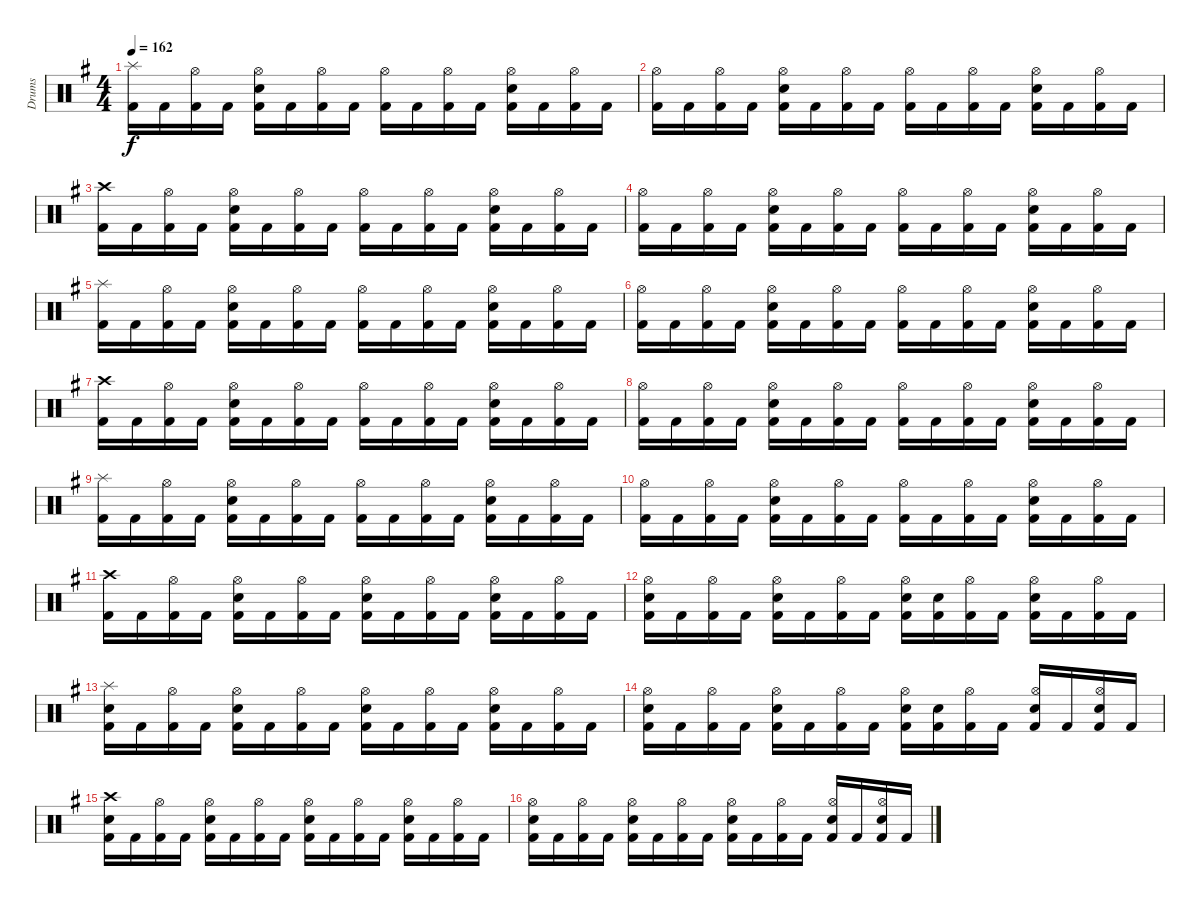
\track ("Drums" "Drums") {instrument percussion}
\staff {score}
\articulation defaults
\ts (4 4)
\tempo 162
\clef neutral
\ks g
("Splash (hit)" "Kick (hit) 2").16{dy f} "Kick (hit) 2".16 ("Hi-Hat (open)" "Kick (hit) 2").16 "Kick (hit) 2".16 ("Hi-Hat (open)" "Electric Snare (hit)" "Kick (hit) 2").16 "Kick (hit) 2".16 ("Hi-Hat (open)" "Kick (hit) 2").16 "Kick (hit) 2".16 ("Hi-Hat (open)" "Kick (hit) 2").16 "Kick (hit) 2".16 ("Hi-Hat (open)" "Kick (hit) 2").16 "Kick (hit) 2".16 ("Hi-Hat (open)" "Electric Snare (hit)" "Kick (hit) 2").16 "Kick (hit) 2".16 ("Hi-Hat (open)" "Kick (hit) 2").16 "Kick (hit) 2".16 |
("Hi-Hat (open)" "Kick (hit) 2").16 "Kick (hit) 2".16 ("Hi-Hat (open)" "Kick (hit) 2").16 "Kick (hit) 2".16 ("Hi-Hat (open)" "Electric Snare (hit)" "Kick (hit) 2").16 "Kick (hit) 2".16 ("Hi-Hat (open)" "Kick (hit) 2").16 "Kick (hit) 2".16 ("Hi-Hat (open)" "Kick (hit) 2").16 "Kick (hit) 2".16 ("Hi-Hat (open)" "Kick (hit) 2").16 "Kick (hit) 2".16 ("Hi-Hat (open)" "Electric Snare (hit)" "Kick (hit) 2").16 "Kick (hit) 2".16 ("Hi-Hat (open)" "Kick (hit) 2").16 "Kick (hit) 2".16 |
("Crash high (hit)" "Kick (hit) 2").16 "Kick (hit) 2".16 ("Hi-Hat (open)" "Kick (hit) 2").16 "Kick (hit) 2".16 ("Hi-Hat (open)" "Electric Snare (hit)" "Kick (hit) 2").16 "Kick (hit) 2".16 ("Hi-Hat (open)" "Kick (hit) 2").16 "Kick (hit) 2".16 ("Hi-Hat (open)" "Kick (hit) 2").16 "Kick (hit) 2".16 ("Hi-Hat (open)" "Kick (hit) 2").16 "Kick (hit) 2".16 ("Hi-Hat (open)" "Electric Snare (hit)" "Kick (hit) 2").16 "Kick (hit) 2".16 ("Hi-Hat (open)" "Kick (hit) 2").16 "Kick (hit) 2".16 |
("Hi-Hat (open)" "Kick (hit) 2").16 "Kick (hit) 2".16 ("Hi-Hat (open)" "Kick (hit) 2").16 "Kick (hit) 2".16 ("Hi-Hat (open)" "Electric Snare (hit)" "Kick (hit) 2").16 "Kick (hit) 2".16 ("Hi-Hat (open)" "Kick (hit) 2").16 "Kick (hit) 2".16 ("Hi-Hat (open)" "Kick (hit) 2").16 "Kick (hit) 2".16 ("Hi-Hat (open)" "Kick (hit) 2").16 "Kick (hit) 2".16 ("Hi-Hat (open)" "Electric Snare (hit)" "Kick (hit) 2").16 "Kick (hit) 2".16 ("Hi-Hat (open)" "Kick (hit) 2").16 "Kick (hit) 2".16 |
("Splash (hit)" "Kick (hit) 2").16 "Kick (hit) 2".16 ("Hi-Hat (open)" "Kick (hit) 2").16 "Kick (hit) 2".16 ("Hi-Hat (open)" "Electric Snare (hit)" "Kick (hit) 2").16 "Kick (hit) 2".16 ("Hi-Hat (open)" "Kick (hit) 2").16 "Kick (hit) 2".16 ("Hi-Hat (open)" "Kick (hit) 2").16 "Kick (hit) 2".16 ("Hi-Hat (open)" "Kick (hit) 2").16 "Kick (hit) 2".16 ("Hi-Hat (open)" "Electric Snare (hit)" "Kick (hit) 2").16 "Kick (hit) 2".16 ("Hi-Hat (open)" "Kick (hit) 2").16 "Kick (hit) 2".16 |
("Hi-Hat (open)" "Kick (hit) 2").16 "Kick (hit) 2".16 ("Hi-Hat (open)" "Kick (hit) 2").16 "Kick (hit) 2".16 ("Hi-Hat (open)" "Electric Snare (hit)" "Kick (hit) 2").16 "Kick (hit) 2".16 ("Hi-Hat (open)" "Kick (hit) 2").16 "Kick (hit) 2".16 ("Hi-Hat (open)" "Kick (hit) 2").16 "Kick (hit) 2".16 ("Hi-Hat (open)" "Kick (hit) 2").16 "Kick (hit) 2".16 ("Hi-Hat (open)" "Electric Snare (hit)" "Kick (hit) 2").16 "Kick (hit) 2".16 ("Hi-Hat (open)" "Kick (hit) 2").16 "Kick (hit) 2".16 |
("Crash high (hit)" "Kick (hit) 2").16 "Kick (hit) 2".16 ("Hi-Hat (open)" "Kick (hit) 2").16 "Kick (hit) 2".16 ("Hi-Hat (open)" "Electric Snare (hit)" "Kick (hit) 2").16 "Kick (hit) 2".16 ("Hi-Hat (open)" "Kick (hit) 2").16 "Kick (hit) 2".16 ("Hi-Hat (open)" "Kick (hit) 2").16 "Kick (hit) 2".16 ("Hi-Hat (open)" "Kick (hit) 2").16 "Kick (hit) 2".16 ("Hi-Hat (open)" "Electric Snare (hit)" "Kick (hit) 2").16 "Kick (hit) 2".16 ("Hi-Hat (open)" "Kick (hit) 2").16 "Kick (hit) 2".16 |
("Hi-Hat (open)" "Kick (hit) 2").16 "Kick (hit) 2".16 ("Hi-Hat (open)" "Kick (hit) 2").16 "Kick (hit) 2".16 ("Hi-Hat (open)" "Electric Snare (hit)" "Kick (hit) 2").16 "Kick (hit) 2".16 ("Hi-Hat (open)" "Kick (hit) 2").16 "Kick (hit) 2".16 ("Hi-Hat (open)" "Kick (hit) 2").16 "Kick (hit) 2".16 ("Hi-Hat (open)" "Kick (hit) 2").16 "Kick (hit) 2".16 ("Hi-Hat (open)" "Electric Snare (hit)" "Kick (hit) 2").16 "Kick (hit) 2".16 ("Hi-Hat (open)" "Kick (hit) 2").16 "Kick (hit) 2".16 |
("Splash (hit)" "Kick (hit) 2").16 "Kick (hit) 2".16 ("Hi-Hat (open)" "Kick (hit) 2").16 "Kick (hit) 2".16 ("Hi-Hat (open)" "Electric Snare (hit)" "Kick (hit) 2").16 "Kick (hit) 2".16 ("Hi-Hat (open)" "Kick (hit) 2").16 "Kick (hit) 2".16 ("Hi-Hat (open)" "Kick (hit) 2").16 "Kick (hit) 2".16 ("Hi-Hat (open)" "Kick (hit) 2").16 "Kick (hit) 2".16 ("Hi-Hat (open)" "Electric Snare (hit)" "Kick (hit) 2").16 "Kick (hit) 2".16 ("Hi-Hat (open)" "Kick (hit) 2").16 "Kick (hit) 2".16 |
("Hi-Hat (open)" "Kick (hit) 2").16 "Kick (hit) 2".16 ("Hi-Hat (open)" "Kick (hit) 2").16 "Kick (hit) 2".16 ("Hi-Hat (open)" "Electric Snare (hit)" "Kick (hit) 2").16 "Kick (hit) 2".16 ("Hi-Hat (open)" "Kick (hit) 2").16 "Kick (hit) 2".16 ("Hi-Hat (open)" "Kick (hit) 2").16 "Kick (hit) 2".16 ("Hi-Hat (open)" "Kick (hit) 2").16 "Kick (hit) 2".16 ("Hi-Hat (open)" "Electric Snare (hit)" "Kick (hit) 2").16 "Kick (hit) 2".16 ("Hi-Hat (open)" "Kick (hit) 2").16 "Kick (hit) 2".16 |
("Crash high (hit)" "Kick (hit) 2").16 "Kick (hit) 2".16 ("Hi-Hat (open)" "Kick (hit) 2").16 "Kick (hit) 2".16 ("Hi-Hat (open)" "Electric Snare (hit)" "Kick (hit) 2").16 "Kick (hit) 2".16 ("Hi-Hat (open)" "Kick (hit) 2").16 "Kick (hit) 2".16 ("Hi-Hat (open)" "Electric Snare (hit)" "Kick (hit) 2").16 "Kick (hit) 2".16 ("Hi-Hat (open)" "Kick (hit) 2").16 "Kick (hit) 2".16 ("Hi-Hat (open)" "Electric Snare (hit)" "Kick (hit) 2").16 "Kick (hit) 2".16 ("Hi-Hat (open)" "Kick (hit) 2").16 "Kick (hit) 2".16 |
("Hi-Hat (open)" "Electric Snare (hit)" "Kick (hit) 2").16 "Kick (hit) 2".16 ("Hi-Hat (open)" "Kick (hit) 2").16 "Kick (hit) 2".16 ("Hi-Hat (open)" "Electric Snare (hit)" "Kick (hit) 2").16 "Kick (hit) 2".16 ("Hi-Hat (open)" "Kick (hit) 2").16 "Kick (hit) 2".16 ("Hi-Hat (open)" "Electric Snare (hit)" "Kick (hit) 2").16 ("Electric Snare (hit)" "Kick (hit) 2").16 ("Hi-Hat (open)" "Kick (hit) 2").16 "Kick (hit) 2".16 ("Hi-Hat (open)" "Electric Snare (hit)" "Kick (hit) 2").16 "Kick (hit) 2".16 ("Hi-Hat (open)" "Kick (hit) 2").16 "Kick (hit) 2".16 |
("Splash (hit)" "Electric Snare (hit)" "Kick (hit) 2").16 "Kick (hit) 2".16 ("Hi-Hat (open)" "Kick (hit) 2").16 "Kick (hit) 2".16 ("Hi-Hat (open)" "Electric Snare (hit)" "Kick (hit) 2").16 "Kick (hit) 2".16 ("Hi-Hat (open)" "Kick (hit) 2").16 "Kick (hit) 2".16 ("Hi-Hat (open)" "Electric Snare (hit)" "Kick (hit) 2").16 "Kick (hit) 2".16 ("Hi-Hat (open)" "Kick (hit) 2").16 "Kick (hit) 2".16 ("Hi-Hat (open)" "Electric Snare (hit)" "Kick (hit) 2").16 "Kick (hit) 2".16 ("Hi-Hat (open)" "Kick (hit) 2").16 "Kick (hit) 2".16 |
("Hi-Hat (open)" "Electric Snare (hit)" "Kick (hit) 2").16 "Kick (hit) 2".16 ("Hi-Hat (open)" "Kick (hit) 2").16 "Kick (hit) 2".16 ("Hi-Hat (open)" "Electric Snare (hit)" "Kick (hit) 2").16 "Kick (hit) 2".16 ("Hi-Hat (open)" "Kick (hit) 2").16 "Kick (hit) 2".16 ("Hi-Hat (open)" "Electric Snare (hit)" "Kick (hit) 2").16 ("Electric Snare (hit)" "Kick (hit) 2").16 ("Hi-Hat (open)" "Kick (hit) 2").16 "Kick (hit) 2".16 ("Hi-Hat (open)" "Electric Snare (hit)" "Kick (hit) 2").16 "Kick (hit) 2".16 ("Hi-Hat (open)" "Electric Snare (hit)" "Kick (hit) 2").16 "Kick (hit) 2".16 |
("Crash high (hit)" "Electric Snare (hit)" "Kick (hit) 2").16 "Kick (hit) 2".16 ("Hi-Hat (open)" "Kick (hit) 2").16 "Kick (hit) 2".16 ("Hi-Hat (open)" "Electric Snare (hit)" "Kick (hit) 2").16 "Kick (hit) 2".16 ("Hi-Hat (open)" "Kick (hit) 2").16 "Kick (hit) 2".16 ("Hi-Hat (open)" "Electric Snare (hit)" "Kick (hit) 2").16 "Kick (hit) 2".16 ("Hi-Hat (open)" "Kick (hit) 2").16 "Kick (hit) 2".16 ("Hi-Hat (open)" "Electric Snare (hit)" "Kick (hit) 2").16 "Kick (hit) 2".16 ("Hi-Hat (open)" "Kick (hit) 2").16 "Kick (hit) 2".16 |
("Hi-Hat (open)" "Electric Snare (hit)" "Kick (hit) 2").16 "Kick (hit) 2".16 ("Hi-Hat (open)" "Kick (hit) 2").16 "Kick (hit) 2".16 ("Hi-Hat (open)" "Electric Snare (hit)" "Kick (hit) 2").16 "Kick (hit) 2".16 ("Hi-Hat (open)" "Kick (hit) 2").16 "Kick (hit) 2".16 ("Hi-Hat (open)" "Electric Snare (hit)" "Kick (hit) 2").16 "Kick (hit) 2".16 ("Hi-Hat (open)" "Kick (hit) 2").16 "Kick (hit) 2".16 ("Hi-Hat (open)" "Electric Snare (hit)" "Kick (hit) 2").16 "Kick (hit) 2".16 ("Hi-Hat (open)" "Electric Snare (hit)" "Kick (hit) 2").16 "Kick (hit) 2".16
